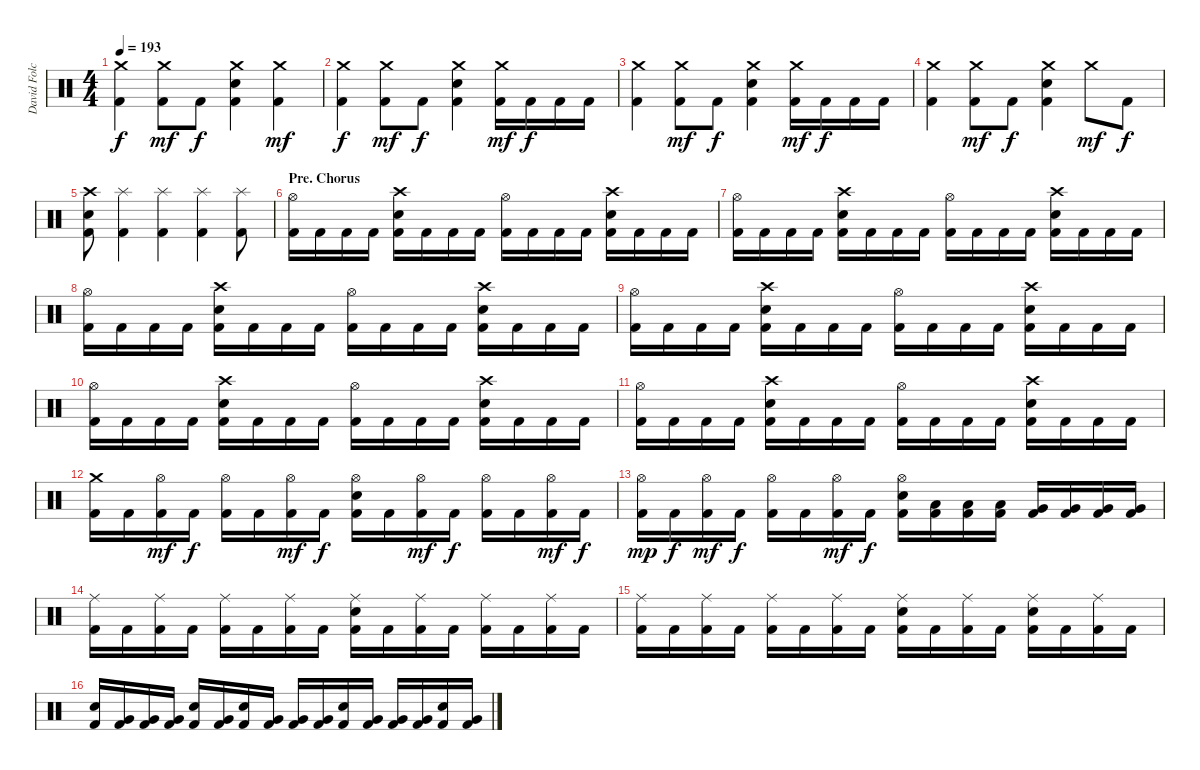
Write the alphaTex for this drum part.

\track ("David Folchitto" "David Folc") {instrument percussion}
\staff {score}
\articulation defaults
\ts (4 4)
\tempo 193
\clef neutral
\ks c
("Crash medium (hit)" "Kick (hit) 2").4{dy f} ("Crash medium (hit)" "Kick (hit) 2").8{dy mf} "Kick (hit) 2".8{dy f} ("Crash medium (hit)" "Snare (hit) 2" "Kick (hit) 2").4 ("Crash medium (hit)" "Kick (hit) 2").4{dy mf} |
("Crash medium (hit)" "Kick (hit) 2").4{dy f} ("Crash medium (hit)" "Kick (hit) 2").8{dy mf} "Kick (hit) 2".8{dy f} ("Crash medium (hit)" "Snare (hit) 2" "Kick (hit) 2").4 ("Crash medium (hit)" "Kick (hit) 2").16{dy mf} "Kick (hit) 2".16{dy f} "Kick (hit) 2".16 "Kick (hit) 2".16 |
("Crash medium (hit)" "Kick (hit) 2").4 ("Crash medium (hit)" "Kick (hit) 2").8{dy mf} "Kick (hit) 2".8{dy f} ("Crash medium (hit)" "Snare (hit) 2" "Kick (hit) 2").4 ("Crash medium (hit)" "Kick (hit) 2").16{dy mf} "Kick (hit) 2".16{dy f} "Kick (hit) 2".16 "Kick (hit) 2".16 |
("Crash medium (hit)" "Kick (hit) 2").4 ("Crash medium (hit)" "Kick (hit) 2").8{dy mf} "Kick (hit) 2".8{dy f} ("Crash medium (hit)" "Snare (hit) 2" "Kick (hit) 2").4 "Crash medium (hit)".8{dy mf} "Kick (hit) 2".8{dy f} |
("Crash high (hit)" "Snare (hit) 2" "Kick (hit) 2").8 ("Splash (hit)" "Kick (hit) 2").4 ("Splash (hit)" "Kick (hit) 2").4 ("Splash (hit)" "Kick (hit) 2").4 ("Splash (hit)" "Kick (hit) 2").8 |
\section ("" "Pre. Chorus")
("Hi-Hat (open)" "Kick (hit) 2").16 "Kick (hit) 2".16 "Kick (hit) 2".16 "Kick (hit) 2".16 ("Crash high (hit)" "Snare (hit) 2" "Kick (hit) 2").16 "Kick (hit) 2".16 "Kick (hit) 2".16 "Kick (hit) 2".16 ("Hi-Hat (open)" "Kick (hit) 2").16 "Kick (hit) 2".16 "Kick (hit) 2".16 "Kick (hit) 2".16 ("Crash high (hit)" "Snare (hit) 2" "Kick (hit) 2").16 "Kick (hit) 2".16 "Kick (hit) 2".16 "Kick (hit) 2".16 |
("Hi-Hat (open)" "Kick (hit) 2").16 "Kick (hit) 2".16 "Kick (hit) 2".16 "Kick (hit) 2".16 ("Crash high (hit)" "Snare (hit) 2" "Kick (hit) 2").16 "Kick (hit) 2".16 "Kick (hit) 2".16 "Kick (hit) 2".16 ("Hi-Hat (open)" "Kick (hit) 2").16 "Kick (hit) 2".16 "Kick (hit) 2".16 "Kick (hit) 2".16 ("Crash high (hit)" "Snare (hit) 2" "Kick (hit) 2").16 "Kick (hit) 2".16 "Kick (hit) 2".16 "Kick (hit) 2".16 |
("Hi-Hat (open)" "Kick (hit) 2").16 "Kick (hit) 2".16 "Kick (hit) 2".16 "Kick (hit) 2".16 ("Crash high (hit)" "Snare (hit) 2" "Kick (hit) 2").16 "Kick (hit) 2".16 "Kick (hit) 2".16 "Kick (hit) 2".16 ("Hi-Hat (open)" "Kick (hit) 2").16 "Kick (hit) 2".16 "Kick (hit) 2".16 "Kick (hit) 2".16 ("Crash high (hit)" "Snare (hit) 2" "Kick (hit) 2").16 "Kick (hit) 2".16 "Kick (hit) 2".16 "Kick (hit) 2".16 |
("Hi-Hat (open)" "Kick (hit) 2").16 "Kick (hit) 2".16 "Kick (hit) 2".16 "Kick (hit) 2".16 ("Crash high (hit)" "Snare (hit) 2" "Kick (hit) 2").16 "Kick (hit) 2".16 "Kick (hit) 2".16 "Kick (hit) 2".16 ("Hi-Hat (open)" "Kick (hit) 2").16 "Kick (hit) 2".16 "Kick (hit) 2".16 "Kick (hit) 2".16 ("Crash high (hit)" "Snare (hit) 2" "Kick (hit) 2").16 "Kick (hit) 2".16 "Kick (hit) 2".16 "Kick (hit) 2".16 |
("Hi-Hat (open)" "Kick (hit) 2").16 "Kick (hit) 2".16 "Kick (hit) 2".16 "Kick (hit) 2".16 ("Crash high (hit)" "Snare (hit) 2" "Kick (hit) 2").16 "Kick (hit) 2".16 "Kick (hit) 2".16 "Kick (hit) 2".16 ("Hi-Hat (open)" "Kick (hit) 2").16 "Kick (hit) 2".16 "Kick (hit) 2".16 "Kick (hit) 2".16 ("Crash high (hit)" "Snare (hit) 2" "Kick (hit) 2").16 "Kick (hit) 2".16 "Kick (hit) 2".16 "Kick (hit) 2".16 |
("Hi-Hat (open)" "Kick (hit) 2").16 "Kick (hit) 2".16 "Kick (hit) 2".16 "Kick (hit) 2".16 ("Crash high (hit)" "Snare (hit) 2" "Kick (hit) 2").16 "Kick (hit) 2".16 "Kick (hit) 2".16 "Kick (hit) 2".16 ("Hi-Hat (open)" "Kick (hit) 2").16 "Kick (hit) 2".16 "Kick (hit) 2".16 "Kick (hit) 2".16 ("Crash high (hit)" "Snare (hit) 2" "Kick (hit) 2").16 "Kick (hit) 2".16 "Kick (hit) 2".16 "Kick (hit) 2".16 |
("Crash medium (hit)" "Kick (hit) 2").16 "Kick (hit) 2".16 ("Hi-Hat (open)" "Kick (hit) 2").16{dy mf} "Kick (hit) 2".16{dy f} ("Hi-Hat (open)" "Kick (hit) 2").16 "Kick (hit) 2".16 ("Hi-Hat (open)" "Kick (hit) 2").16{dy mf} "Kick (hit) 2".16{dy f} ("Hi-Hat (open)" "Snare (hit) 2" "Kick (hit) 2").16 "Kick (hit) 2".16 ("Hi-Hat (open)" "Kick (hit) 2").16{dy mf} "Kick (hit) 2".16{dy f} ("Hi-Hat (open)" "Kick (hit) 2").16 "Kick (hit) 2".16 ("Hi-Hat (open)" "Kick (hit) 2").16{dy mf} "Kick (hit) 2".16{dy f} |
("Hi-Hat (open)" "Kick (hit) 2").16{dy mp} "Kick (hit) 2".16{dy f} ("Hi-Hat (open)" "Kick (hit) 2").16{dy mf} "Kick (hit) 2".16{dy f} ("Hi-Hat (open)" "Kick (hit) 2").16 "Kick (hit) 2".16 ("Hi-Hat (open)" "Kick (hit) 2").16{dy mf} "Kick (hit) 2".16{dy f} ("Hi-Hat (open)" "Snare (hit) 2" "Kick (hit) 2").16 ("Low Tom (hit)" "Kick (hit) 2").16 ("Low Tom (hit)" "Kick (hit) 2").16 ("Low Tom (hit)" "Kick (hit) 2").16 ("Very Low Tom (hit)" "Kick (hit) 2").16 ("Very Low Tom (hit)" "Kick (hit) 2").16 ("Very Low Tom (hit)" "Kick (hit) 2").16 ("Very Low Tom (hit)" "Kick (hit) 2").16 |
("Ride (middle)" "Kick (hit) 2").16 "Kick (hit) 2".16 ("Ride (middle)" "Kick (hit) 2").16 "Kick (hit) 2".16 ("Ride (middle)" "Kick (hit) 2").16 "Kick (hit) 2".16 ("Ride (middle)" "Kick (hit) 2").16 "Kick (hit) 2".16 ("Snare (hit) 2" "Ride (middle)" "Kick (hit) 2").16 "Kick (hit) 2".16 ("Ride (middle)" "Kick (hit) 2").16 "Kick (hit) 2".16 ("Ride (middle)" "Kick (hit) 2").16 "Kick (hit) 2".16 ("Ride (middle)" "Kick (hit) 2").16 "Kick (hit) 2".16 |
("Ride (middle)" "Kick (hit) 2").16 "Kick (hit) 2".16 ("Ride (middle)" "Kick (hit) 2").16 "Kick (hit) 2".16 ("Ride (middle)" "Kick (hit) 2").16 "Kick (hit) 2".16 ("Ride (middle)" "Kick (hit) 2").16 "Kick (hit) 2".16 ("Snare (hit) 2" "Ride (middle)" "Kick (hit) 2").16 "Kick (hit) 2".16 ("Ride (middle)" "Kick (hit) 2").16 "Kick (hit) 2".16 ("Snare (hit) 2" "Ride (middle)" "Kick (hit) 2").16 "Kick (hit) 2".16 ("Ride (middle)" "Kick (hit) 2").16 "Kick (hit) 2".16 |
("Snare (hit) 2" "Kick (hit) 2").16 ("Very Low Tom (hit)" "Kick (hit) 2").16 ("Very Low Tom (hit)" "Kick (hit) 2").16 ("Very Low Tom (hit)" "Kick (hit) 2").16 ("Snare (hit) 2" "Kick (hit) 2").16 ("Very Low Tom (hit)" "Kick (hit) 2").16 ("Snare (hit) 2" "Kick (hit) 2").16 ("Very Low Tom (hit)" "Kick (hit) 2").16 ("Very Low Tom (hit)" "Kick (hit) 2").16 ("Very Low Tom (hit)" "Kick (hit) 2").16 ("Snare (hit) 2" "Kick (hit) 2").16 ("Very Low Tom (hit)" "Kick (hit) 2").16 ("Very Low Tom (hit)" "Kick (hit) 2").16 ("Very Low Tom (hit)" "Kick (hit) 2").16 ("Snare (hit) 2" "Kick (hit) 2").16 ("Very Low Tom (hit)" "Kick (hit) 2").16
